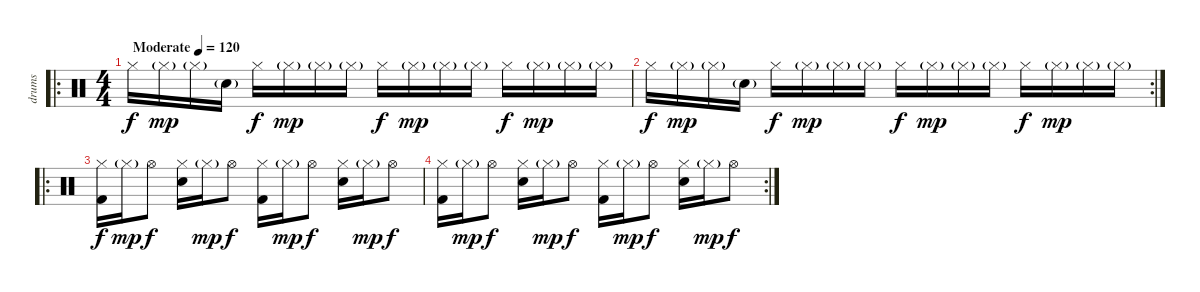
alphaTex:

\track ("drums" "drums") {instrument percussion}
\staff
\articulation defaults
\ro
\ts (4 4)
\tempo (120 "Moderate")
\clef neutral
\ks c "Hi-Hat (closed)".16{dy f} "Hi-Hat (closed)"{g}.16{dy mp} "Hi-Hat (closed)"{g}.16 "Snare (hit)"{g}.16 "Hi-Hat (closed)".16{dy f} "Hi-Hat (closed)"{g}.16{dy mp} "Hi-Hat (closed)"{g}.16 "Hi-Hat (closed)"{g}.16 "Hi-Hat (closed)".16{dy f} "Hi-Hat (closed)"{g}.16{dy mp} "Hi-Hat (closed)"{g}.16 "Hi-Hat (closed)"{g}.16 "Hi-Hat (closed)".16{dy f} "Hi-Hat (closed)"{g}.16{dy mp} "Hi-Hat (closed)"{g}.16 "Hi-Hat (closed)"{g}.16
|
\rc 2 "Hi-Hat (closed)".16{dy f} "Hi-Hat (closed)"{g}.16{dy mp} "Hi-Hat (closed)"{g}.16 "Snare (hit)"{g}.16 "Hi-Hat (closed)".16{dy f} "Hi-Hat (closed)"{g}.16{dy mp} "Hi-Hat (closed)"{g}.16 "Hi-Hat (closed)"{g}.16 "Hi-Hat (closed)".16{dy f} "Hi-Hat (closed)"{g}.16{dy mp} "Hi-Hat (closed)"{g}.16 "Hi-Hat (closed)"{g}.16 "Hi-Hat (closed)".16{dy f} "Hi-Hat (closed)"{g}.16{dy mp} "Hi-Hat (closed)"{g}.16 "Hi-Hat (closed)"{g}.16
|
\ro
("Hi-Hat (closed)" "Kick (hit) 2").16{dy f} "Hi-Hat (closed)"{g}.16{dy mp} "Hi-Hat (open)".8{dy f} ("Hi-Hat (closed)" "Electric Snare (hit)").16 "Hi-Hat (closed)"{g}.16{dy mp} "Hi-Hat (open)".8{dy f} ("Hi-Hat (closed)" "Kick (hit) 2").16 "Hi-Hat (closed)"{g}.16{dy mp} "Hi-Hat (open)".8{dy f} ("Hi-Hat (closed)" "Electric Snare (hit)").16 "Hi-Hat (closed)"{g}.16{dy mp} "Hi-Hat (open)".8{dy f} |
\rc 2
("Hi-Hat (closed)" "Kick (hit) 2").16 "Hi-Hat (closed)"{g}.16{dy mp} "Hi-Hat (open)".8{dy f} ("Hi-Hat (closed)" "Electric Snare (hit)").16 "Hi-Hat (closed)"{g}.16{dy mp} "Hi-Hat (open)".8{dy f} ("Hi-Hat (closed)" "Kick (hit) 2").16 "Hi-Hat (closed)"{g}.16{dy mp} "Hi-Hat (open)".8{dy f} ("Hi-Hat (closed)" "Electric Snare (hit)").16 "Hi-Hat (closed)"{g}.16{dy mp} "Hi-Hat (open)".8{dy f}
